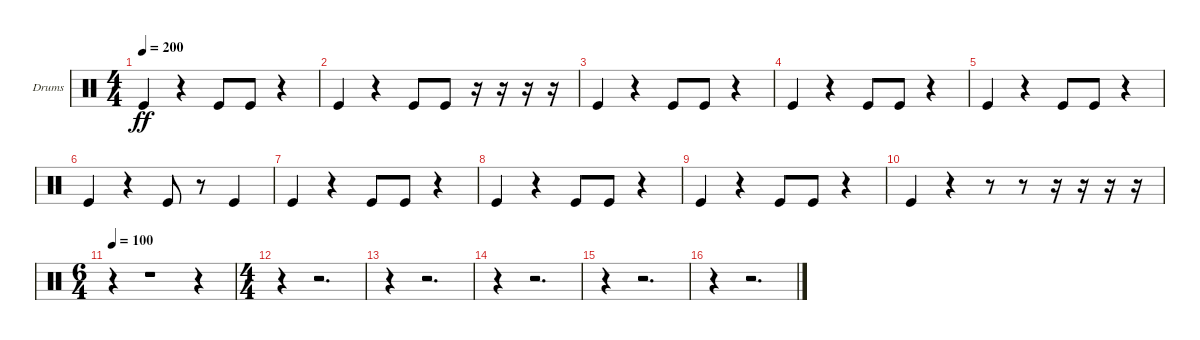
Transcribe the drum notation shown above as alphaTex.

\bracketExtendMode groupsimilarinstruments
\firstSystemTrackNameOrientation horizontal
\otherSystemsTrackNameOrientation horizontal
\track ("Drumkit" "Drums") {instrument percussion}
\staff {score}
\articulation defaults
\ts (4 4)
\tempo 200
\clef neutral
\ks c "Kick (hit)".4{dy ff}
r.4 "Kick (hit)".8 "Kick (hit)".8 r.4 |
"Kick (hit)".4 r.4 "Kick (hit)".8 "Kick (hit)".8 r.16 r.16 r.16 r.16 |
"Kick (hit)".4 r.4 "Kick (hit)".8 "Kick (hit)".8 r.4 |
"Kick (hit)".4 r.4 "Kick (hit)".8 "Kick (hit)".8 r.4 |
"Kick (hit)".4 r.4 "Kick (hit)".8 "Kick (hit)".8 r.4 |
"Kick (hit)".4 r.4 "Kick (hit)".8 r.8 "Kick (hit)".4 |
"Kick (hit)".4 r.4 "Kick (hit)".8 "Kick (hit)".8 r.4 |
"Kick (hit)".4 r.4 "Kick (hit)".8 "Kick (hit)".8 r.4 |
"Kick (hit)".4 r.4 "Kick (hit)".8 "Kick (hit)".8 r.4 |
"Kick (hit)".4 r.4 r.8 r.8 r.16 r.16 r.16 r.16 |
\ts (6 4)
\beaming (8 2 2 2 6)
\tempo 100
r.4 r.1 r.4 |
\ts (4 4)
\beaming (8 2 2 2 2)
r.4 r.2{d} |
r.4 r.2{d} |
r.4 r.2{d} |
r.4 r.2{d} |
r.4 r.2{d}
